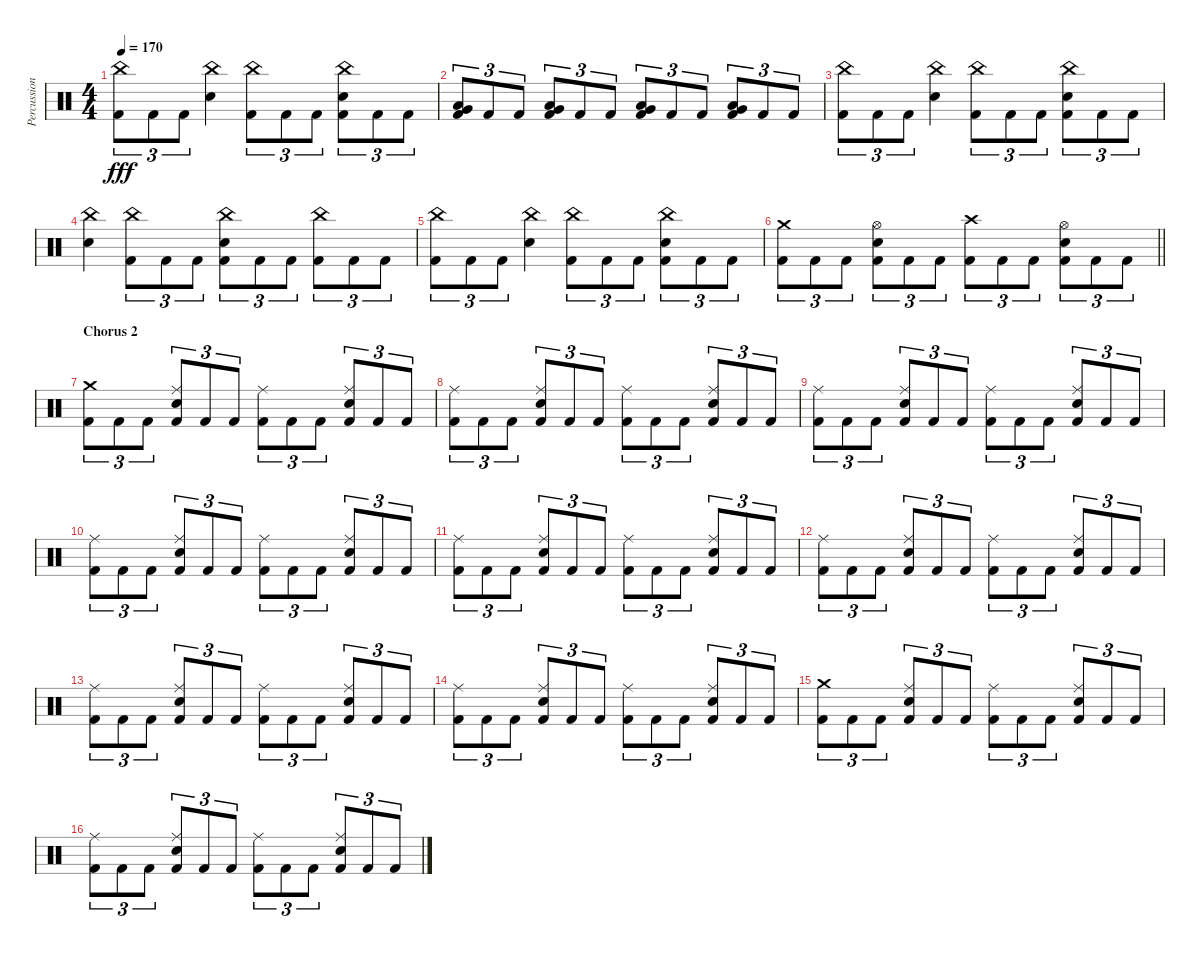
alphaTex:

\track ("Percussion" "Percussion") {instrument percussion}
\staff {score}
\articulation defaults
\ts (4 4)
\tempo 170
\clef neutral
\ks c
("China (hit)" "Kick (hit) 2").8{tu (3 2) dy fff} "Kick (hit) 2".8{tu (3 2)} "Kick (hit) 2".8{tu (3 2)} ("China (hit)" "Electric Snare (hit)").4 ("China (hit)" "Kick (hit) 2").8{tu (3 2)} "Kick (hit) 2".8{tu (3 2)} "Kick (hit) 2".8{tu (3 2)} ("China (hit)" "Electric Snare (hit)" "Kick (hit) 2").8{tu (3 2)} "Kick (hit) 2".8{tu (3 2)} "Kick (hit) 2".8{tu (3 2)} |
("Low Floor Tom (hit)" "Very Low Tom (hit)" "Kick (hit) 2").8{tu (3 2)} "Kick (hit) 2".8{tu (3 2)} "Kick (hit) 2".8{tu (3 2)} ("Low Floor Tom (hit)" "Very Low Tom (hit)" "Kick (hit) 2").8{tu (3 2)} "Kick (hit) 2".8{tu (3 2)} "Kick (hit) 2".8{tu (3 2)} ("Low Floor Tom (hit)" "Very Low Tom (hit)" "Kick (hit) 2").8{tu (3 2)} "Kick (hit) 2".8{tu (3 2)} "Kick (hit) 2".8{tu (3 2)} ("Low Floor Tom (hit)" "Very Low Tom (hit)" "Kick (hit) 2").8{tu (3 2)} "Kick (hit) 2".8{tu (3 2)} "Kick (hit) 2".8{tu (3 2)} |
("China (hit)" "Kick (hit) 2").8{tu (3 2)} "Kick (hit) 2".8{tu (3 2)} "Kick (hit) 2".8{tu (3 2)} ("China (hit)" "Electric Snare (hit)").4 ("China (hit)" "Kick (hit) 2").8{tu (3 2)} "Kick (hit) 2".8{tu (3 2)} "Kick (hit) 2".8{tu (3 2)} ("China (hit)" "Electric Snare (hit)" "Kick (hit) 2").8{tu (3 2)} "Kick (hit) 2".8{tu (3 2)} "Kick (hit) 2".8{tu (3 2)} |
("China (hit)" "Electric Snare (hit)").4 ("China (hit)" "Kick (hit) 2").8{tu (3 2)} "Kick (hit) 2".8{tu (3 2)} "Kick (hit) 2".8{tu (3 2)} ("China (hit)" "Electric Snare (hit)" "Kick (hit) 2").8{tu (3 2)} "Kick (hit) 2".8{tu (3 2)} "Kick (hit) 2".8{tu (3 2)} ("China (hit)" "Kick (hit) 2").8{tu (3 2)} "Kick (hit) 2".8{tu (3 2)} "Kick (hit) 2".8{tu (3 2)} |
("China (hit)" "Kick (hit) 2").8{tu (3 2)} "Kick (hit) 2".8{tu (3 2)} "Kick (hit) 2".8{tu (3 2)} ("China (hit)" "Electric Snare (hit)").4 ("China (hit)" "Kick (hit) 2").8{tu (3 2)} "Kick (hit) 2".8{tu (3 2)} "Kick (hit) 2".8{tu (3 2)} ("China (hit)" "Electric Snare (hit)" "Kick (hit) 2").8{tu (3 2)} "Kick (hit) 2".8{tu (3 2)} "Kick (hit) 2".8{tu (3 2)} |
\barLineRight lightlight
("Crash medium (hit)" "Kick (hit) 2").8{tu (3 2)} "Kick (hit) 2".8{tu (3 2)} "Kick (hit) 2".8{tu (3 2)} ("Hi-Hat (open)" "Electric Snare (hit)" "Kick (hit) 2").8{tu (3 2)} "Kick (hit) 2".8{tu (3 2)} "Kick (hit) 2".8{tu (3 2)} ("Crash high (hit)" "Kick (hit) 2").8{tu (3 2)} "Kick (hit) 2".8{tu (3 2)} "Kick (hit) 2".8{tu (3 2)} ("Hi-Hat (open)" "Electric Snare (hit)" "Kick (hit) 2").8{tu (3 2)} "Kick (hit) 2".8{tu (3 2)} "Kick (hit) 2".8{tu (3 2)} |
\section ("" "Chorus 2")
("Crash medium (hit)" "Kick (hit) 2").8{tu (3 2)} "Kick (hit) 2".8{tu (3 2)} "Kick (hit) 2".8{tu (3 2)} ("Ride (middle)" "Snare (hit) 2" "Kick (hit) 2").8{tu (3 2)} "Kick (hit) 2".8{tu (3 2)} "Kick (hit) 2".8{tu (3 2)} ("Ride (middle)" "Kick (hit) 2").8{tu (3 2)} "Kick (hit) 2".8{tu (3 2)} "Kick (hit) 2".8{tu (3 2)} ("Ride (middle)" "Snare (hit) 2" "Kick (hit) 2").8{tu (3 2)} "Kick (hit) 2".8{tu (3 2)} "Kick (hit) 2".8{tu (3 2)} |
("Ride (middle)" "Kick (hit) 2").8{tu (3 2)} "Kick (hit) 2".8{tu (3 2)} "Kick (hit) 2".8{tu (3 2)} ("Ride (middle)" "Snare (hit) 2" "Kick (hit) 2").8{tu (3 2)} "Kick (hit) 2".8{tu (3 2)} "Kick (hit) 2".8{tu (3 2)} ("Ride (middle)" "Kick (hit) 2").8{tu (3 2)} "Kick (hit) 2".8{tu (3 2)} "Kick (hit) 2".8{tu (3 2)} ("Ride (middle)" "Snare (hit) 2" "Kick (hit) 2").8{tu (3 2)} "Kick (hit) 2".8{tu (3 2)} "Kick (hit) 2".8{tu (3 2)} |
("Ride (middle)" "Kick (hit) 2").8{tu (3 2)} "Kick (hit) 2".8{tu (3 2)} "Kick (hit) 2".8{tu (3 2)} ("Ride (middle)" "Snare (hit) 2" "Kick (hit) 2").8{tu (3 2)} "Kick (hit) 2".8{tu (3 2)} "Kick (hit) 2".8{tu (3 2)} ("Ride (middle)" "Kick (hit) 2").8{tu (3 2)} "Kick (hit) 2".8{tu (3 2)} "Kick (hit) 2".8{tu (3 2)} ("Ride (middle)" "Snare (hit) 2" "Kick (hit) 2").8{tu (3 2)} "Kick (hit) 2".8{tu (3 2)} "Kick (hit) 2".8{tu (3 2)} |
("Ride (middle)" "Kick (hit) 2").8{tu (3 2)} "Kick (hit) 2".8{tu (3 2)} "Kick (hit) 2".8{tu (3 2)} ("Ride (middle)" "Snare (hit) 2" "Kick (hit) 2").8{tu (3 2)} "Kick (hit) 2".8{tu (3 2)} "Kick (hit) 2".8{tu (3 2)} ("Ride (middle)" "Kick (hit) 2").8{tu (3 2)} "Kick (hit) 2".8{tu (3 2)} "Kick (hit) 2".8{tu (3 2)} ("Ride (middle)" "Snare (hit) 2" "Kick (hit) 2").8{tu (3 2)} "Kick (hit) 2".8{tu (3 2)} "Kick (hit) 2".8{tu (3 2)} |
("Ride (middle)" "Kick (hit) 2").8{tu (3 2)} "Kick (hit) 2".8{tu (3 2)} "Kick (hit) 2".8{tu (3 2)} ("Ride (middle)" "Snare (hit) 2" "Kick (hit) 2").8{tu (3 2)} "Kick (hit) 2".8{tu (3 2)} "Kick (hit) 2".8{tu (3 2)} ("Ride (middle)" "Kick (hit) 2").8{tu (3 2)} "Kick (hit) 2".8{tu (3 2)} "Kick (hit) 2".8{tu (3 2)} ("Ride (middle)" "Snare (hit) 2" "Kick (hit) 2").8{tu (3 2)} "Kick (hit) 2".8{tu (3 2)} "Kick (hit) 2".8{tu (3 2)} |
("Ride (middle)" "Kick (hit) 2").8{tu (3 2)} "Kick (hit) 2".8{tu (3 2)} "Kick (hit) 2".8{tu (3 2)} ("Ride (middle)" "Snare (hit) 2" "Kick (hit) 2").8{tu (3 2)} "Kick (hit) 2".8{tu (3 2)} "Kick (hit) 2".8{tu (3 2)} ("Ride (middle)" "Kick (hit) 2").8{tu (3 2)} "Kick (hit) 2".8{tu (3 2)} "Kick (hit) 2".8{tu (3 2)} ("Ride (middle)" "Snare (hit) 2" "Kick (hit) 2").8{tu (3 2)} "Kick (hit) 2".8{tu (3 2)} "Kick (hit) 2".8{tu (3 2)} |
("Ride (middle)" "Kick (hit) 2").8{tu (3 2)} "Kick (hit) 2".8{tu (3 2)} "Kick (hit) 2".8{tu (3 2)} ("Ride (middle)" "Snare (hit) 2" "Kick (hit) 2").8{tu (3 2)} "Kick (hit) 2".8{tu (3 2)} "Kick (hit) 2".8{tu (3 2)} ("Ride (middle)" "Kick (hit) 2").8{tu (3 2)} "Kick (hit) 2".8{tu (3 2)} "Kick (hit) 2".8{tu (3 2)} ("Ride (middle)" "Snare (hit) 2" "Kick (hit) 2").8{tu (3 2)} "Kick (hit) 2".8{tu (3 2)} "Kick (hit) 2".8{tu (3 2)} |
("Ride (middle)" "Kick (hit) 2").8{tu (3 2)} "Kick (hit) 2".8{tu (3 2)} "Kick (hit) 2".8{tu (3 2)} ("Ride (middle)" "Snare (hit) 2" "Kick (hit) 2").8{tu (3 2)} "Kick (hit) 2".8{tu (3 2)} "Kick (hit) 2".8{tu (3 2)} ("Ride (middle)" "Kick (hit) 2").8{tu (3 2)} "Kick (hit) 2".8{tu (3 2)} "Kick (hit) 2".8{tu (3 2)} ("Ride (middle)" "Snare (hit) 2" "Kick (hit) 2").8{tu (3 2)} "Kick (hit) 2".8{tu (3 2)} "Kick (hit) 2".8{tu (3 2)} |
("Crash medium (hit)" "Kick (hit) 2").8{tu (3 2)} "Kick (hit) 2".8{tu (3 2)} "Kick (hit) 2".8{tu (3 2)} ("Ride (middle)" "Snare (hit) 2" "Kick (hit) 2").8{tu (3 2)} "Kick (hit) 2".8{tu (3 2)} "Kick (hit) 2".8{tu (3 2)} ("Ride (middle)" "Kick (hit) 2").8{tu (3 2)} "Kick (hit) 2".8{tu (3 2)} "Kick (hit) 2".8{tu (3 2)} ("Ride (middle)" "Snare (hit) 2" "Kick (hit) 2").8{tu (3 2)} "Kick (hit) 2".8{tu (3 2)} "Kick (hit) 2".8{tu (3 2)} |
("Ride (middle)" "Kick (hit) 2").8{tu (3 2)} "Kick (hit) 2".8{tu (3 2)} "Kick (hit) 2".8{tu (3 2)} ("Ride (middle)" "Snare (hit) 2" "Kick (hit) 2").8{tu (3 2)} "Kick (hit) 2".8{tu (3 2)} "Kick (hit) 2".8{tu (3 2)} ("Ride (middle)" "Kick (hit) 2").8{tu (3 2)} "Kick (hit) 2".8{tu (3 2)} "Kick (hit) 2".8{tu (3 2)} ("Ride (middle)" "Snare (hit) 2" "Kick (hit) 2").8{tu (3 2)} "Kick (hit) 2".8{tu (3 2)} "Kick (hit) 2".8{tu (3 2)}
